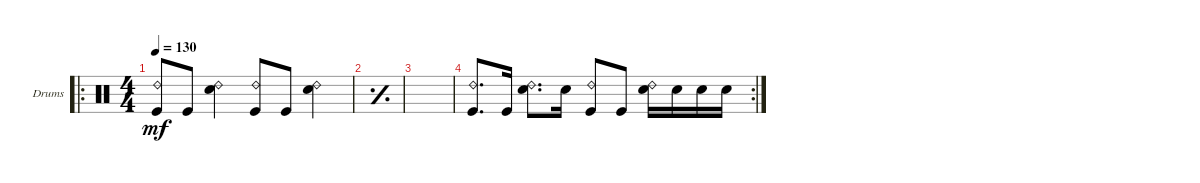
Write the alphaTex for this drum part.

\defaultSystemsLayout 4
\bracketExtendMode groupsimilarinstruments
\firstSystemTrackNameOrientation horizontal
\otherSystemsTrackNameOrientation horizontal
\track ("Drumkit" "Drums") {instrument percussion}
\staff {score}
\articulation defaults
\ro
\ts (4 4)
\tempo 130
\clef neutral
\ks c
("Kick (hit)" "Ride (bell) 2").8{dy mf} "Kick (hit)".8 ("Snare (hit) 2" "Ride (bell) 2").4 ("Kick (hit)" "Ride (bell) 2").8 "Kick (hit)".8 ("Snare (hit) 2" "Ride (bell) 2").4 |
\simile simple
|
|
\rc 2
\simile none
("Kick (hit)" "Ride (bell) 2").8{d} "Kick (hit)".16 ("Snare (hit) 2" "Ride (bell) 2").8{d} "Snare (hit) 2".16 ("Ride (bell) 2" "Kick (hit)").8 "Kick (hit)".8 ("Snare (hit) 2" "Ride (bell) 2").16 "Snare (hit) 2".16 "Snare (hit) 2".16 "Snare (hit) 2".16
